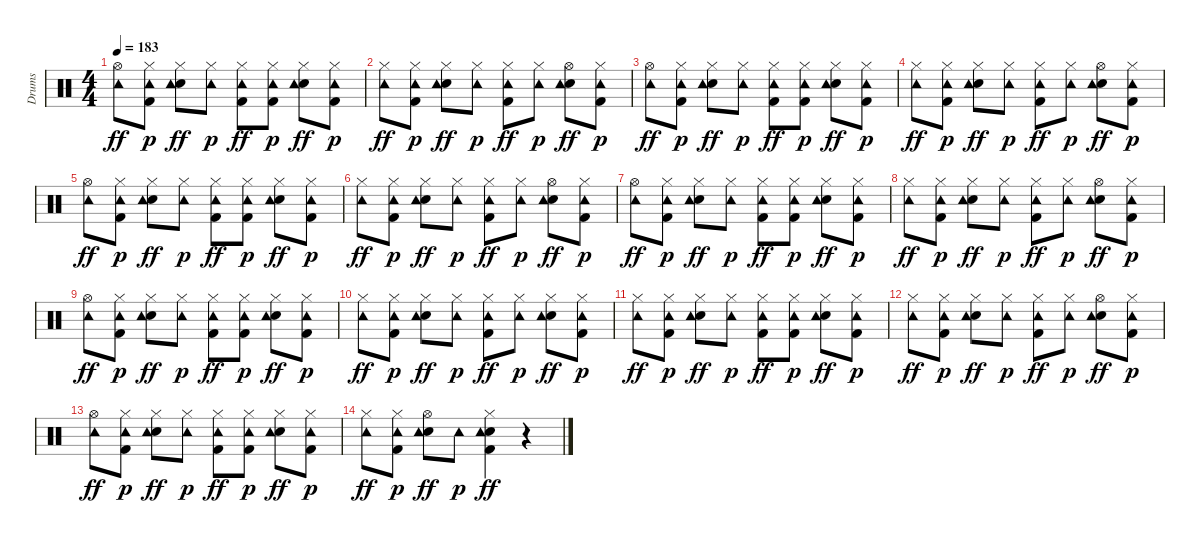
\track ("Drums" "Drums") {instrument percussion}
\staff {score}
\articulation defaults
\ts (4 4)
\tempo 183
\clef neutral
\ks c
("Hi-Hat (open)" "Tambourine (hit)").8{dy ff} ("Kick (hit) 2" "Hi-Hat (closed)" "Tambourine (hit)").8{dy p} ("Snare (hit) 2" "Hi-Hat (closed)" "Tambourine (hit)").8{dy ff} ("Hi-Hat (closed)" "Tambourine (hit)").8{dy p} ("Kick (hit) 2" "Hi-Hat (closed)" "Tambourine (hit)").8{dy ff} ("Kick (hit) 2" "Hi-Hat (closed)" "Tambourine (hit)").8{dy p} ("Snare (hit) 2" "Hi-Hat (closed)" "Tambourine (hit)").8{dy ff} ("Kick (hit) 2" "Hi-Hat (closed)" "Tambourine (hit)").8{dy p} |
("Hi-Hat (closed)" "Tambourine (hit)").8{dy ff} ("Kick (hit) 2" "Hi-Hat (closed)" "Tambourine (hit)").8{dy p} ("Snare (hit) 2" "Hi-Hat (closed)" "Tambourine (hit)").8{dy ff} ("Hi-Hat (closed)" "Tambourine (hit)").8{dy p} ("Kick (hit) 2" "Hi-Hat (closed)" "Tambourine (hit)").8{dy ff} ("Hi-Hat (closed)" "Tambourine (hit)").8{dy p} ("Snare (hit) 2" "Hi-Hat (open)" "Tambourine (hit)").8{dy ff} ("Kick (hit) 2" "Hi-Hat (closed)" "Tambourine (hit)").8{dy p} |
("Hi-Hat (open)" "Tambourine (hit)").8{dy ff} ("Kick (hit) 2" "Hi-Hat (closed)" "Tambourine (hit)").8{dy p} ("Snare (hit) 2" "Hi-Hat (closed)" "Tambourine (hit)").8{dy ff} ("Hi-Hat (closed)" "Tambourine (hit)").8{dy p} ("Kick (hit) 2" "Hi-Hat (closed)" "Tambourine (hit)").8{dy ff} ("Kick (hit) 2" "Hi-Hat (closed)" "Tambourine (hit)").8{dy p} ("Snare (hit) 2" "Hi-Hat (closed)" "Tambourine (hit)").8{dy ff} ("Kick (hit) 2" "Hi-Hat (closed)" "Tambourine (hit)").8{dy p} |
("Hi-Hat (closed)" "Tambourine (hit)").8{dy ff} ("Kick (hit) 2" "Hi-Hat (closed)" "Tambourine (hit)").8{dy p} ("Snare (hit) 2" "Hi-Hat (closed)" "Tambourine (hit)").8{dy ff} ("Hi-Hat (closed)" "Tambourine (hit)").8{dy p} ("Kick (hit) 2" "Hi-Hat (closed)" "Tambourine (hit)").8{dy ff} ("Hi-Hat (closed)" "Tambourine (hit)").8{dy p} ("Snare (hit) 2" "Hi-Hat (open)" "Tambourine (hit)").8{dy ff} ("Kick (hit) 2" "Hi-Hat (closed)" "Tambourine (hit)").8{dy p} |
("Hi-Hat (open)" "Tambourine (hit)").8{dy ff} ("Kick (hit) 2" "Hi-Hat (closed)" "Tambourine (hit)").8{dy p} ("Snare (hit) 2" "Hi-Hat (closed)" "Tambourine (hit)").8{dy ff} ("Hi-Hat (closed)" "Tambourine (hit)").8{dy p} ("Kick (hit) 2" "Hi-Hat (closed)" "Tambourine (hit)").8{dy ff} ("Kick (hit) 2" "Hi-Hat (closed)" "Tambourine (hit)").8{dy p} ("Snare (hit) 2" "Hi-Hat (closed)" "Tambourine (hit)").8{dy ff} ("Kick (hit) 2" "Hi-Hat (closed)" "Tambourine (hit)").8{dy p} |
("Hi-Hat (closed)" "Tambourine (hit)").8{dy ff} ("Kick (hit) 2" "Hi-Hat (closed)" "Tambourine (hit)").8{dy p} ("Snare (hit) 2" "Hi-Hat (closed)" "Tambourine (hit)").8{dy ff} ("Hi-Hat (closed)" "Tambourine (hit)").8{dy p} ("Kick (hit) 2" "Hi-Hat (closed)" "Tambourine (hit)").8{dy ff} ("Hi-Hat (closed)" "Tambourine (hit)").8{dy p} ("Snare (hit) 2" "Hi-Hat (open)" "Tambourine (hit)").8{dy ff} ("Kick (hit) 2" "Hi-Hat (closed)" "Tambourine (hit)").8{dy p} |
("Hi-Hat (open)" "Tambourine (hit)").8{dy ff} ("Kick (hit) 2" "Hi-Hat (closed)" "Tambourine (hit)").8{dy p} ("Snare (hit) 2" "Hi-Hat (closed)" "Tambourine (hit)").8{dy ff} ("Hi-Hat (closed)" "Tambourine (hit)").8{dy p} ("Kick (hit) 2" "Hi-Hat (closed)" "Tambourine (hit)").8{dy ff} ("Kick (hit) 2" "Hi-Hat (closed)" "Tambourine (hit)").8{dy p} ("Snare (hit) 2" "Hi-Hat (closed)" "Tambourine (hit)").8{dy ff} ("Kick (hit) 2" "Hi-Hat (closed)" "Tambourine (hit)").8{dy p} |
("Hi-Hat (closed)" "Tambourine (hit)").8{dy ff} ("Kick (hit) 2" "Hi-Hat (closed)" "Tambourine (hit)").8{dy p} ("Snare (hit) 2" "Hi-Hat (closed)" "Tambourine (hit)").8{dy ff} ("Hi-Hat (closed)" "Tambourine (hit)").8{dy p} ("Kick (hit) 2" "Hi-Hat (closed)" "Tambourine (hit)").8{dy ff} ("Hi-Hat (closed)" "Tambourine (hit)").8{dy p} ("Snare (hit) 2" "Hi-Hat (open)" "Tambourine (hit)").8{dy ff} ("Kick (hit) 2" "Hi-Hat (closed)" "Tambourine (hit)").8{dy p} |
("Hi-Hat (open)" "Tambourine (hit)").8{dy ff} ("Kick (hit) 2" "Hi-Hat (closed)" "Tambourine (hit)").8{dy p} ("Snare (hit) 2" "Hi-Hat (closed)" "Tambourine (hit)").8{dy ff} ("Hi-Hat (closed)" "Tambourine (hit)").8{dy p} ("Kick (hit) 2" "Hi-Hat (closed)" "Tambourine (hit)").8{dy ff} ("Kick (hit) 2" "Hi-Hat (closed)" "Tambourine (hit)").8{dy p} ("Snare (hit) 2" "Hi-Hat (closed)" "Tambourine (hit)").8{dy ff} ("Kick (hit) 2" "Hi-Hat (closed)" "Tambourine (hit)").8{dy p} |
("Hi-Hat (closed)" "Tambourine (hit)").8{dy ff} ("Kick (hit) 2" "Hi-Hat (closed)" "Tambourine (hit)").8{dy p} ("Snare (hit) 2" "Hi-Hat (closed)" "Tambourine (hit)").8{dy ff} ("Hi-Hat (closed)" "Tambourine (hit)").8{dy p} ("Kick (hit) 2" "Hi-Hat (closed)" "Tambourine (hit)").8{dy ff} ("Hi-Hat (closed)" "Tambourine (hit)").8{dy p} ("Snare (hit) 2" "Hi-Hat (closed)" "Tambourine (hit)").8{dy ff} ("Kick (hit) 2" "Hi-Hat (closed)" "Tambourine (hit)").8{dy p} |
("Hi-Hat (closed)" "Tambourine (hit)").8{dy ff} ("Kick (hit) 2" "Hi-Hat (closed)" "Tambourine (hit)").8{dy p} ("Snare (hit) 2" "Hi-Hat (closed)" "Tambourine (hit)").8{dy ff} ("Hi-Hat (closed)" "Tambourine (hit)").8{dy p} ("Kick (hit) 2" "Hi-Hat (closed)" "Tambourine (hit)").8{dy ff} ("Kick (hit) 2" "Hi-Hat (closed)" "Tambourine (hit)").8{dy p} ("Snare (hit) 2" "Hi-Hat (closed)" "Tambourine (hit)").8{dy ff} ("Kick (hit) 2" "Hi-Hat (closed)" "Tambourine (hit)").8{dy p} |
("Hi-Hat (closed)" "Tambourine (hit)").8{dy ff} ("Kick (hit) 2" "Hi-Hat (closed)" "Tambourine (hit)").8{dy p} ("Snare (hit) 2" "Hi-Hat (closed)" "Tambourine (hit)").8{dy ff} ("Hi-Hat (closed)" "Tambourine (hit)").8{dy p} ("Kick (hit) 2" "Hi-Hat (closed)" "Tambourine (hit)").8{dy ff} ("Hi-Hat (closed)" "Tambourine (hit)").8{dy p} ("Snare (hit) 2" "Hi-Hat (open)" "Tambourine (hit)").8{dy ff} ("Kick (hit) 2" "Hi-Hat (closed)" "Tambourine (hit)").8{dy p} |
("Hi-Hat (open)" "Tambourine (hit)").8{dy ff} ("Kick (hit) 2" "Hi-Hat (closed)" "Tambourine (hit)").8{dy p} ("Snare (hit) 2" "Hi-Hat (closed)" "Tambourine (hit)").8{dy ff} ("Hi-Hat (closed)" "Tambourine (hit)").8{dy p} ("Kick (hit) 2" "Hi-Hat (closed)" "Tambourine (hit)").8{dy ff} ("Kick (hit) 2" "Hi-Hat (closed)" "Tambourine (hit)").8{dy p} ("Snare (hit) 2" "Hi-Hat (closed)" "Tambourine (hit)").8{dy ff} ("Kick (hit) 2" "Hi-Hat (closed)" "Tambourine (hit)").8{dy p} |
("Hi-Hat (closed)" "Tambourine (hit)").8{dy ff} ("Kick (hit) 2" "Hi-Hat (closed)" "Tambourine (hit)").8{dy p} ("Snare (hit) 2" "Hi-Hat (open)" "Tambourine (hit)").8{dy ff} "Tambourine (hit)".8{dy p} ("Kick (hit) 2" "Snare (hit) 2" "Hi-Hat (closed)" "Tambourine (hit)").4{dy ff} r.4
